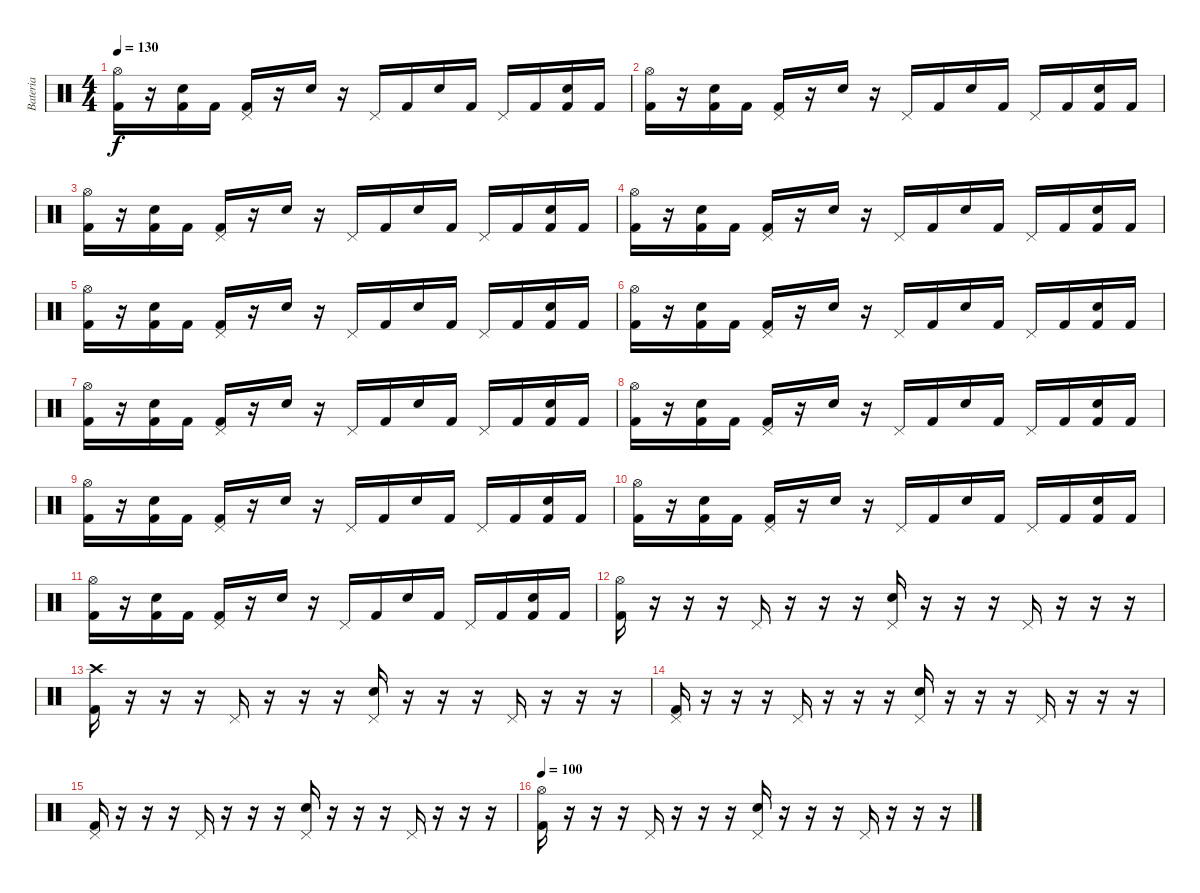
\track ("Bateria" "Bateria") {instrument percussion}
\staff {score}
\articulation defaults
\ts (4 4)
\tempo 130
\clef neutral
\ks c
("Hi-Hat (open)" "Kick (hit) 2").16{dy f} r.16 ("Snare (hit) 2" "Kick (hit) 2").16 "Kick (hit) 2".16 ("Pedal Hi-Hat (hit)" "Kick (hit) 2").16 r.16 "Snare (hit) 2".16 r.16 "Pedal Hi-Hat (hit)".16 "Kick (hit) 2".16 "Snare (hit) 2".16 "Kick (hit) 2".16 "Pedal Hi-Hat (hit)".16 "Kick (hit) 2".16 ("Snare (hit) 2" "Kick (hit) 2").16 "Kick (hit) 2".16 |
("Hi-Hat (open)" "Kick (hit) 2").16 r.16 ("Snare (hit) 2" "Kick (hit) 2").16 "Kick (hit) 2".16 ("Pedal Hi-Hat (hit)" "Kick (hit) 2").16 r.16 "Snare (hit) 2".16 r.16 "Pedal Hi-Hat (hit)".16 "Kick (hit) 2".16 "Snare (hit) 2".16 "Kick (hit) 2".16 "Pedal Hi-Hat (hit)".16 "Kick (hit) 2".16 ("Snare (hit) 2" "Kick (hit) 2").16 "Kick (hit) 2".16 |
("Hi-Hat (open)" "Kick (hit) 2").16 r.16 ("Snare (hit) 2" "Kick (hit) 2").16 "Kick (hit) 2".16 ("Pedal Hi-Hat (hit)" "Kick (hit) 2").16 r.16 "Snare (hit) 2".16 r.16 "Pedal Hi-Hat (hit)".16 "Kick (hit) 2".16 "Snare (hit) 2".16 "Kick (hit) 2".16 "Pedal Hi-Hat (hit)".16 "Kick (hit) 2".16 ("Snare (hit) 2" "Kick (hit) 2").16 "Kick (hit) 2".16 |
("Hi-Hat (open)" "Kick (hit) 2").16 r.16 ("Snare (hit) 2" "Kick (hit) 2").16 "Kick (hit) 2".16 ("Pedal Hi-Hat (hit)" "Kick (hit) 2").16 r.16 "Snare (hit) 2".16 r.16 "Pedal Hi-Hat (hit)".16 "Kick (hit) 2".16 "Snare (hit) 2".16 "Kick (hit) 2".16 "Pedal Hi-Hat (hit)".16 "Kick (hit) 2".16 ("Snare (hit) 2" "Kick (hit) 2").16 "Kick (hit) 2".16 |
("Hi-Hat (open)" "Kick (hit) 2").16 r.16 ("Snare (hit) 2" "Kick (hit) 2").16 "Kick (hit) 2".16 ("Pedal Hi-Hat (hit)" "Kick (hit) 2").16 r.16 "Snare (hit) 2".16 r.16 "Pedal Hi-Hat (hit)".16 "Kick (hit) 2".16 "Snare (hit) 2".16 "Kick (hit) 2".16 "Pedal Hi-Hat (hit)".16 "Kick (hit) 2".16 ("Snare (hit) 2" "Kick (hit) 2").16 "Kick (hit) 2".16 |
("Hi-Hat (open)" "Kick (hit) 2").16 r.16 ("Snare (hit) 2" "Kick (hit) 2").16 "Kick (hit) 2".16 ("Pedal Hi-Hat (hit)" "Kick (hit) 2").16 r.16 "Snare (hit) 2".16 r.16 "Pedal Hi-Hat (hit)".16 "Kick (hit) 2".16 "Snare (hit) 2".16 "Kick (hit) 2".16 "Pedal Hi-Hat (hit)".16 "Kick (hit) 2".16 ("Snare (hit) 2" "Kick (hit) 2").16 "Kick (hit) 2".16 |
("Hi-Hat (open)" "Kick (hit) 2").16 r.16 ("Snare (hit) 2" "Kick (hit) 2").16 "Kick (hit) 2".16 ("Pedal Hi-Hat (hit)" "Kick (hit) 2").16 r.16 "Snare (hit) 2".16 r.16 "Pedal Hi-Hat (hit)".16 "Kick (hit) 2".16 "Snare (hit) 2".16 "Kick (hit) 2".16 "Pedal Hi-Hat (hit)".16 "Kick (hit) 2".16 ("Snare (hit) 2" "Kick (hit) 2").16 "Kick (hit) 2".16 |
("Hi-Hat (open)" "Kick (hit) 2").16 r.16 ("Snare (hit) 2" "Kick (hit) 2").16 "Kick (hit) 2".16 ("Pedal Hi-Hat (hit)" "Kick (hit) 2").16 r.16 "Snare (hit) 2".16 r.16 "Pedal Hi-Hat (hit)".16 "Kick (hit) 2".16 "Snare (hit) 2".16 "Kick (hit) 2".16 "Pedal Hi-Hat (hit)".16 "Kick (hit) 2".16 ("Snare (hit) 2" "Kick (hit) 2").16 "Kick (hit) 2".16 |
("Hi-Hat (open)" "Kick (hit) 2").16 r.16 ("Snare (hit) 2" "Kick (hit) 2").16 "Kick (hit) 2".16 ("Pedal Hi-Hat (hit)" "Kick (hit) 2").16 r.16 "Snare (hit) 2".16 r.16 "Pedal Hi-Hat (hit)".16 "Kick (hit) 2".16 "Snare (hit) 2".16 "Kick (hit) 2".16 "Pedal Hi-Hat (hit)".16 "Kick (hit) 2".16 ("Snare (hit) 2" "Kick (hit) 2").16 "Kick (hit) 2".16 |
("Hi-Hat (open)" "Kick (hit) 2").16 r.16 ("Snare (hit) 2" "Kick (hit) 2").16 "Kick (hit) 2".16 ("Pedal Hi-Hat (hit)" "Kick (hit) 2").16 r.16 "Snare (hit) 2".16 r.16 "Pedal Hi-Hat (hit)".16 "Kick (hit) 2".16 "Snare (hit) 2".16 "Kick (hit) 2".16 "Pedal Hi-Hat (hit)".16 "Kick (hit) 2".16 ("Snare (hit) 2" "Kick (hit) 2").16 "Kick (hit) 2".16 |
("Hi-Hat (open)" "Kick (hit) 2").16 r.16 ("Snare (hit) 2" "Kick (hit) 2").16 "Kick (hit) 2".16 ("Pedal Hi-Hat (hit)" "Kick (hit) 2").16 r.16 "Snare (hit) 2".16 r.16 "Pedal Hi-Hat (hit)".16 "Kick (hit) 2".16 "Snare (hit) 2".16 "Kick (hit) 2".16 "Pedal Hi-Hat (hit)".16 "Kick (hit) 2".16 ("Snare (hit) 2" "Kick (hit) 2").16 "Kick (hit) 2".16 |
("Hi-Hat (open)" "Kick (hit) 2").16 r.16 r.16 r.16 "Pedal Hi-Hat (hit)".16 r.16 r.16 r.16 ("Pedal Hi-Hat (hit)" "Snare (hit) 2").16 r.16 r.16 r.16 "Pedal Hi-Hat (hit)".16 r.16 r.16 r.16 |
("Crash high (hit)" "Kick (hit) 2").16 r.16 r.16 r.16 "Pedal Hi-Hat (hit)".16 r.16 r.16 r.16 ("Pedal Hi-Hat (hit)" "Snare (hit) 2").16 r.16 r.16 r.16 "Pedal Hi-Hat (hit)".16 r.16 r.16 r.16 |
("Pedal Hi-Hat (hit)" "Kick (hit) 2").16 r.16 r.16 r.16 "Pedal Hi-Hat (hit)".16 r.16 r.16 r.16 ("Pedal Hi-Hat (hit)" "Snare (hit) 2").16 r.16 r.16 r.16 "Pedal Hi-Hat (hit)".16 r.16 r.16 r.16 |
("Pedal Hi-Hat (hit)" "Kick (hit) 2").16 r.16 r.16 r.16 "Pedal Hi-Hat (hit)".16 r.16 r.16 r.16 ("Pedal Hi-Hat (hit)" "Snare (hit) 2").16 r.16 r.16 r.16 "Pedal Hi-Hat (hit)".16 r.16 r.16 r.16 |
\tempo 100
("Hi-Hat (open)" "Kick (hit) 2").16 r.16 r.16 r.16 "Pedal Hi-Hat (hit)".16 r.16 r.16 r.16 ("Pedal Hi-Hat (hit)" "Snare (hit) 2").16 r.16 r.16 r.16 "Pedal Hi-Hat (hit)".16 r.16 r.16 r.16
